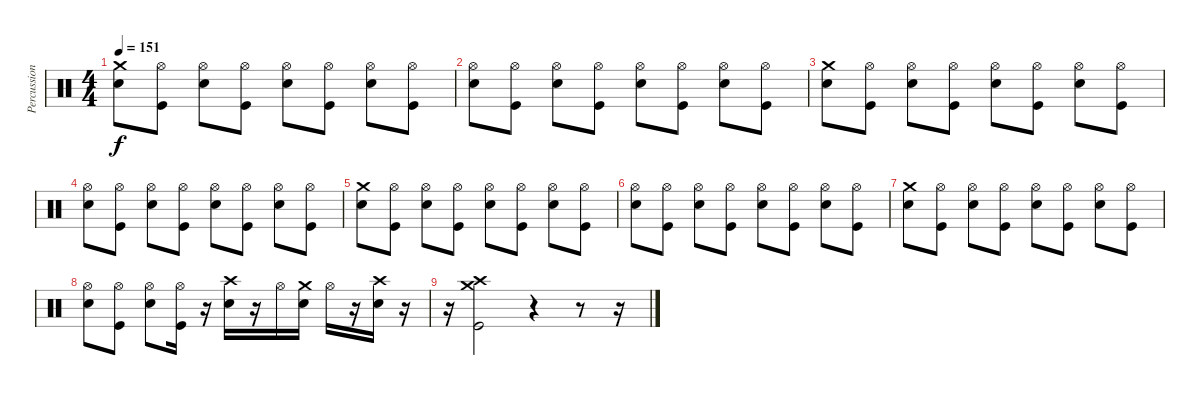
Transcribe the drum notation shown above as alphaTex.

\track ("Percussion" "Percussion") {instrument percussion}
\staff {score}
\articulation defaults
\ts (4 4)
\tempo 151
\clef neutral
\ks c
("Crash medium (hit)" "Electric Snare (hit)").8{dy f} ("Hi-Hat (open)" "Kick (hit)").8 ("Hi-Hat (open)" "Electric Snare (hit)").8 ("Hi-Hat (open)" "Kick (hit)").8 ("Hi-Hat (open)" "Electric Snare (hit)").8 ("Hi-Hat (open)" "Kick (hit)").8 ("Hi-Hat (open)" "Electric Snare (hit)").8 ("Hi-Hat (open)" "Kick (hit)").8 |
("Hi-Hat (open)" "Electric Snare (hit)").8 ("Hi-Hat (open)" "Kick (hit)").8 ("Hi-Hat (open)" "Electric Snare (hit)").8 ("Hi-Hat (open)" "Kick (hit)").8 ("Hi-Hat (open)" "Electric Snare (hit)").8 ("Hi-Hat (open)" "Kick (hit)").8 ("Hi-Hat (open)" "Electric Snare (hit)").8 ("Hi-Hat (open)" "Kick (hit)").8 |
("Crash medium (hit)" "Electric Snare (hit)").8 ("Hi-Hat (open)" "Kick (hit)").8 ("Hi-Hat (open)" "Electric Snare (hit)").8 ("Hi-Hat (open)" "Kick (hit)").8 ("Hi-Hat (open)" "Electric Snare (hit)").8 ("Hi-Hat (open)" "Kick (hit)").8 ("Hi-Hat (open)" "Electric Snare (hit)").8 ("Hi-Hat (open)" "Kick (hit)").8 |
("Hi-Hat (open)" "Electric Snare (hit)").8 ("Hi-Hat (open)" "Kick (hit)").8 ("Hi-Hat (open)" "Electric Snare (hit)").8 ("Hi-Hat (open)" "Kick (hit)").8 ("Hi-Hat (open)" "Electric Snare (hit)").8 ("Hi-Hat (open)" "Kick (hit)").8 ("Hi-Hat (open)" "Electric Snare (hit)").8 ("Hi-Hat (open)" "Kick (hit)").8 |
("Crash medium (hit)" "Electric Snare (hit)").8 ("Hi-Hat (open)" "Kick (hit)").8 ("Hi-Hat (open)" "Electric Snare (hit)").8 ("Hi-Hat (open)" "Kick (hit)").8 ("Hi-Hat (open)" "Electric Snare (hit)").8 ("Hi-Hat (open)" "Kick (hit)").8 ("Hi-Hat (open)" "Electric Snare (hit)").8 ("Hi-Hat (open)" "Kick (hit)").8 |
("Hi-Hat (open)" "Electric Snare (hit)").8 ("Hi-Hat (open)" "Kick (hit)").8 ("Hi-Hat (open)" "Electric Snare (hit)").8 ("Hi-Hat (open)" "Kick (hit)").8 ("Hi-Hat (open)" "Electric Snare (hit)").8 ("Hi-Hat (open)" "Kick (hit)").8 ("Hi-Hat (open)" "Electric Snare (hit)").8 ("Hi-Hat (open)" "Kick (hit)").8 |
("Crash medium (hit)" "Electric Snare (hit)").8 ("Hi-Hat (open)" "Kick (hit)").8 ("Hi-Hat (open)" "Electric Snare (hit)").8 ("Hi-Hat (open)" "Kick (hit)").8 ("Hi-Hat (open)" "Electric Snare (hit)").8 ("Hi-Hat (open)" "Kick (hit)").8 ("Hi-Hat (open)" "Electric Snare (hit)").8 ("Hi-Hat (open)" "Kick (hit)").8 |
("Hi-Hat (open)" "Electric Snare (hit)").8 ("Hi-Hat (open)" "Kick (hit)").8 ("Hi-Hat (open)" "Electric Snare (hit)").8 ("Hi-Hat (open)" "Kick (hit)").16 r.16 ("Crash high (hit)" "Electric Snare (hit)").16 r.16 "Hi-Hat (open)"{x}.16 ("Crash medium (hit)" "Electric Snare (hit)").16 "Hi-Hat (open)"{x}.16 r.16 ("Crash high (hit)" "Electric Snare (hit)").16 r.16 |
r.16 ("Crash medium (hit)" "Crash high (hit)" "Kick (hit)").2 r.4 r.8 r.16
